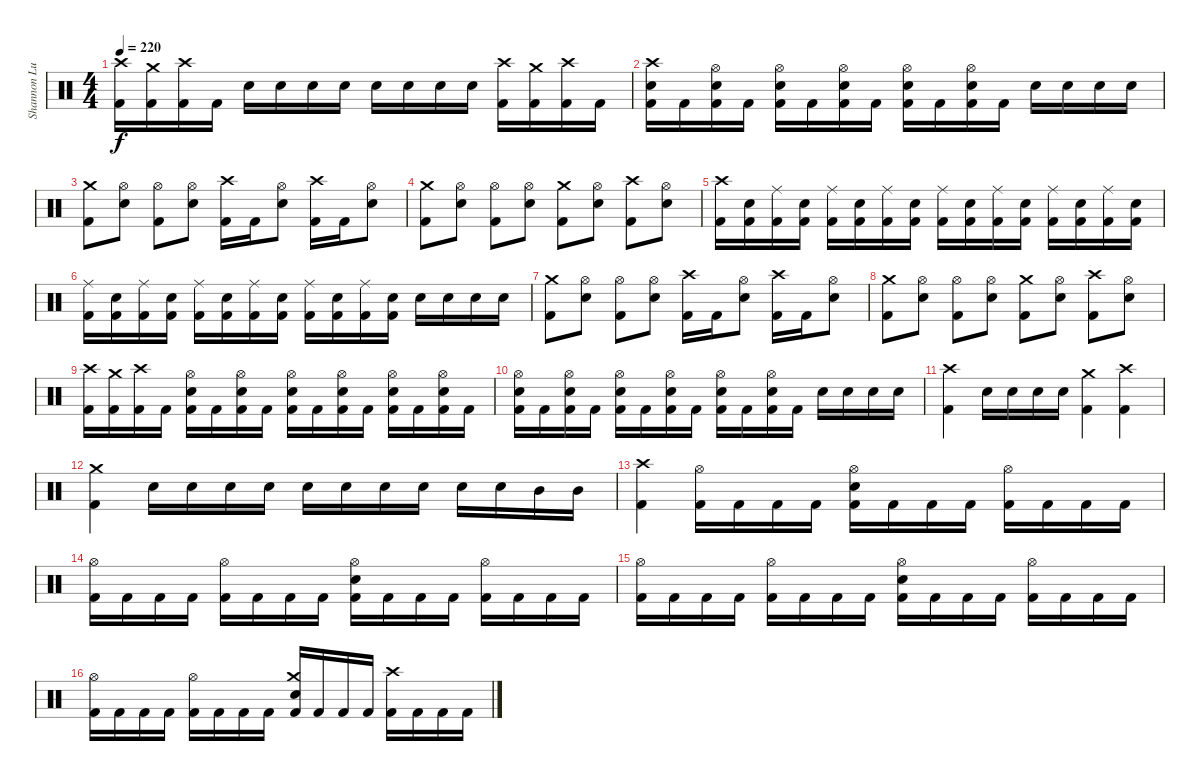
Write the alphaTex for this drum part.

\track ("Shannon Lucas (Drums)" "Shannon Lu") {instrument percussion}
\staff {score}
\articulation defaults
\ts (4 4)
\tempo 220
\clef neutral
\ks c
("Crash high (hit)" "Kick (hit) 2").16{dy f} ("Crash medium (hit)" "Kick (hit) 2").16 ("Crash high (hit)" "Kick (hit) 2").16 "Kick (hit) 2".16 "Snare (hit) 2".16 "Snare (hit) 2".16 "Snare (hit) 2".16 "Snare (hit) 2".16 "Snare (hit) 2".16 "Snare (hit) 2".16 "Snare (hit) 2".16 "Snare (hit) 2".16 ("Crash high (hit)" "Kick (hit) 2").16 ("Crash medium (hit)" "Kick (hit) 2").16 ("Crash high (hit)" "Kick (hit) 2").16 "Kick (hit) 2".16 |
("Crash high (hit)" "Snare (hit) 2" "Kick (hit) 2").16 "Kick (hit) 2".16 ("Hi-Hat (open)" "Snare (hit) 2" "Kick (hit) 2").16 "Kick (hit) 2".16 ("Hi-Hat (open)" "Snare (hit) 2" "Kick (hit) 2").16 "Kick (hit) 2".16 ("Hi-Hat (open)" "Snare (hit) 2" "Kick (hit) 2").16 "Kick (hit) 2".16 ("Hi-Hat (open)" "Snare (hit) 2" "Kick (hit) 2").16 "Kick (hit) 2".16 ("Hi-Hat (open)" "Snare (hit) 2" "Kick (hit) 2").16 "Kick (hit) 2".16 "Snare (hit) 2".16 "Snare (hit) 2".16 "Snare (hit) 2".16 "Snare (hit) 2".16 |
("Crash medium (hit)" "Kick (hit) 2").8 ("Hi-Hat (open)" "Snare (hit) 2").8 ("Hi-Hat (open)" "Kick (hit) 2").8 ("Hi-Hat (open)" "Snare (hit) 2").8 ("Crash high (hit)" "Kick (hit) 2").16 "Kick (hit) 2".16 ("Hi-Hat (open)" "Snare (hit) 2").8 ("Crash high (hit)" "Kick (hit) 2").16 "Kick (hit) 2".16 ("Hi-Hat (open)" "Snare (hit) 2").8 |
("Crash medium (hit)" "Kick (hit) 2").8 ("Hi-Hat (open)" "Snare (hit) 2").8 ("Hi-Hat (open)" "Kick (hit) 2").8 ("Hi-Hat (open)" "Snare (hit) 2").8 ("Crash medium (hit)" "Kick (hit) 2").8 ("Hi-Hat (open)" "Snare (hit) 2").8 ("Crash high (hit)" "Kick (hit) 2").8 ("Hi-Hat (open)" "Snare (hit) 2").8 |
("Crash high (hit)" "Kick (hit) 2").16 ("Snare (hit) 2" "Kick (hit) 2").16 ("Ride (middle)" "Kick (hit) 2").16 ("Snare (hit) 2" "Kick (hit) 2").16 ("Ride (middle)" "Kick (hit) 2").16 ("Snare (hit) 2" "Kick (hit) 2").16 ("Ride (middle)" "Kick (hit) 2").16 ("Snare (hit) 2" "Kick (hit) 2").16 ("Ride (middle)" "Kick (hit) 2").16 ("Snare (hit) 2" "Kick (hit) 2").16 ("Ride (middle)" "Kick (hit) 2").16 ("Snare (hit) 2" "Kick (hit) 2").16 ("Ride (middle)" "Kick (hit) 2").16 ("Snare (hit) 2" "Kick (hit) 2").16 ("Ride (middle)" "Kick (hit) 2").16 ("Snare (hit) 2" "Kick (hit) 2").16 |
("Ride (middle)" "Kick (hit) 2").16 ("Snare (hit) 2" "Kick (hit) 2").16 ("Ride (middle)" "Kick (hit) 2").16 ("Snare (hit) 2" "Kick (hit) 2").16 ("Ride (middle)" "Kick (hit) 2").16 ("Snare (hit) 2" "Kick (hit) 2").16 ("Ride (middle)" "Kick (hit) 2").16 ("Snare (hit) 2" "Kick (hit) 2").16 ("Ride (middle)" "Kick (hit) 2").16 ("Snare (hit) 2" "Kick (hit) 2").16 ("Ride (middle)" "Kick (hit) 2").16 ("Snare (hit) 2" "Kick (hit) 2").16 "Snare (hit) 2".16 "Snare (hit) 2".16 "Snare (hit) 2".16 "Snare (hit) 2".16 |
("Crash medium (hit)" "Kick (hit) 2").8 ("Hi-Hat (open)" "Snare (hit) 2").8 ("Hi-Hat (open)" "Kick (hit) 2").8 ("Hi-Hat (open)" "Snare (hit) 2").8 ("Crash high (hit)" "Kick (hit) 2").16 "Kick (hit) 2".16 ("Hi-Hat (open)" "Snare (hit) 2").8 ("Crash high (hit)" "Kick (hit) 2").16 "Kick (hit) 2".16 ("Hi-Hat (open)" "Snare (hit) 2").8 |
("Crash medium (hit)" "Kick (hit) 2").8 ("Hi-Hat (open)" "Snare (hit) 2").8 ("Hi-Hat (open)" "Kick (hit) 2").8 ("Hi-Hat (open)" "Snare (hit) 2").8 ("Crash medium (hit)" "Kick (hit) 2").8 ("Hi-Hat (open)" "Snare (hit) 2").8 ("Crash high (hit)" "Kick (hit) 2").8 ("Hi-Hat (open)" "Snare (hit) 2").8 |
("Crash high (hit)" "Kick (hit) 2").16 ("Crash medium (hit)" "Kick (hit) 2").16 ("Crash high (hit)" "Kick (hit) 2").16 "Kick (hit) 2".16 ("Hi-Hat (open)" "Snare (hit) 2" "Kick (hit) 2").16 "Kick (hit) 2".16 ("Hi-Hat (open)" "Snare (hit) 2" "Kick (hit) 2").16 "Kick (hit) 2".16 ("Hi-Hat (open)" "Snare (hit) 2" "Kick (hit) 2").16 "Kick (hit) 2".16 ("Hi-Hat (open)" "Snare (hit) 2" "Kick (hit) 2").16 "Kick (hit) 2".16 ("Hi-Hat (open)" "Snare (hit) 2" "Kick (hit) 2").16 "Kick (hit) 2".16 ("Hi-Hat (open)" "Snare (hit) 2" "Kick (hit) 2").16 "Kick (hit) 2".16 |
("Hi-Hat (open)" "Snare (hit) 2" "Kick (hit) 2").16 "Kick (hit) 2".16 ("Hi-Hat (open)" "Snare (hit) 2" "Kick (hit) 2").16 "Kick (hit) 2".16 ("Hi-Hat (open)" "Snare (hit) 2" "Kick (hit) 2").16 "Kick (hit) 2".16 ("Hi-Hat (open)" "Snare (hit) 2" "Kick (hit) 2").16 "Kick (hit) 2".16 ("Hi-Hat (open)" "Snare (hit) 2" "Kick (hit) 2").16 "Kick (hit) 2".16 ("Hi-Hat (open)" "Snare (hit) 2" "Kick (hit) 2").16 "Kick (hit) 2".16 "Snare (hit) 2".16 "Snare (hit) 2".16 "Snare (hit) 2".16 "Snare (hit) 2".16 |
("Crash high (hit)" "Kick (hit) 2").4 "Snare (hit) 2".16 "Snare (hit) 2".16 "Snare (hit) 2".16 "Snare (hit) 2".16 ("Crash medium (hit)" "Kick (hit) 2").4 ("Crash high (hit)" "Kick (hit) 2").4 |
("Crash medium (hit)" "Kick (hit) 2").4 "Snare (hit) 2".16 "Snare (hit) 2".16 "Snare (hit) 2".16 "Snare (hit) 2".16 "Snare (hit) 2".16 "Snare (hit) 2".16 "Snare (hit) 2".16 "Snare (hit) 2".16 "Snare (hit) 2".16 "Snare (hit) 2".16 "Mid Tom (hit)".16 "Mid Tom (hit)".16 |
("Crash high (hit)" "Kick (hit) 2").4 ("Hi-Hat (open)" "Kick (hit) 2").16 "Kick (hit) 2".16 "Kick (hit) 2".16 "Kick (hit) 2".16 ("Snare (hit) 2" "Hi-Hat (open)" "Kick (hit) 2").16 "Kick (hit) 2".16 "Kick (hit) 2".16 "Kick (hit) 2".16 ("Hi-Hat (open)" "Kick (hit) 2").16 "Kick (hit) 2".16 "Kick (hit) 2".16 "Kick (hit) 2".16 |
("Hi-Hat (open)" "Kick (hit) 2").16 "Kick (hit) 2".16 "Kick (hit) 2".16 "Kick (hit) 2".16 ("Hi-Hat (open)" "Kick (hit) 2").16 "Kick (hit) 2".16 "Kick (hit) 2".16 "Kick (hit) 2".16 ("Snare (hit) 2" "Hi-Hat (open)" "Kick (hit) 2").16 "Kick (hit) 2".16 "Kick (hit) 2".16 "Kick (hit) 2".16 ("Hi-Hat (open)" "Kick (hit) 2").16 "Kick (hit) 2".16 "Kick (hit) 2".16 "Kick (hit) 2".16 |
("Hi-Hat (open)" "Kick (hit) 2").16 "Kick (hit) 2".16 "Kick (hit) 2".16 "Kick (hit) 2".16 ("Hi-Hat (open)" "Kick (hit) 2").16 "Kick (hit) 2".16 "Kick (hit) 2".16 "Kick (hit) 2".16 ("Snare (hit) 2" "Hi-Hat (open)" "Kick (hit) 2").16 "Kick (hit) 2".16 "Kick (hit) 2".16 "Kick (hit) 2".16 ("Hi-Hat (open)" "Kick (hit) 2").16 "Kick (hit) 2".16 "Kick (hit) 2".16 "Kick (hit) 2".16 |
("Hi-Hat (open)" "Kick (hit) 2").16 "Kick (hit) 2".16 "Kick (hit) 2".16 "Kick (hit) 2".16 ("Hi-Hat (open)" "Kick (hit) 2").16 "Kick (hit) 2".16 "Kick (hit) 2".16 "Kick (hit) 2".16 ("Snare (hit) 2" "Crash medium (hit)" "Kick (hit) 2").16 "Kick (hit) 2".16 "Kick (hit) 2".16 "Kick (hit) 2".16 ("Crash high (hit)" "Kick (hit) 2").16 "Kick (hit) 2".16 "Kick (hit) 2".16 "Kick (hit) 2".16
